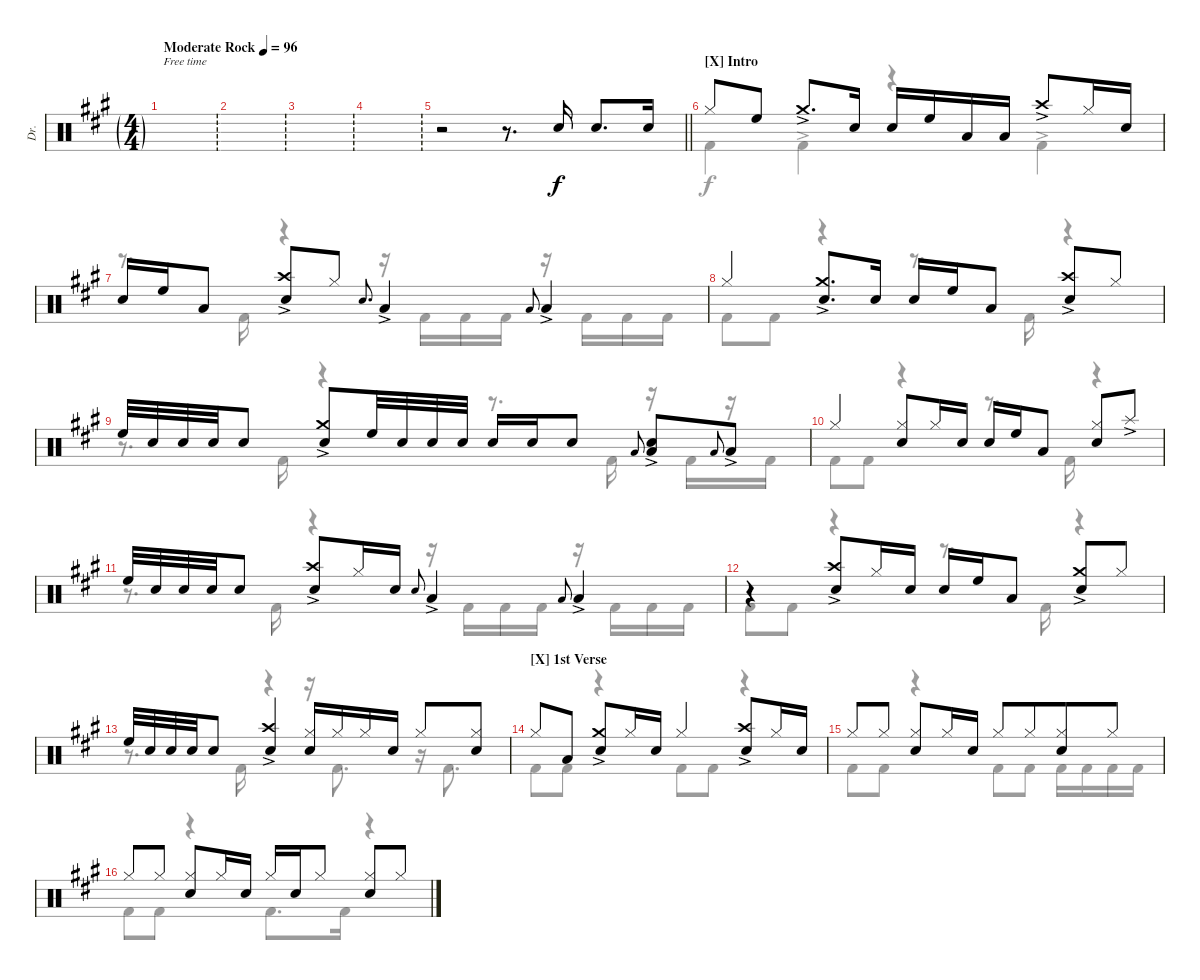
\defaultSystemsLayout 4
\bracketExtendMode groupsimilarinstruments
\otherSystemsTrackNameOrientation horizontal
\track ("Drums" "Dr.") {instrument percussion}
\staff {score}
\articulation defaults
\voice
\ts (4 4)
\ft
\ac
\tempo (96 "Moderate Rock")
\clef neutral
\ks a
|
\ft
|
\ft
|
\ft
|
\ft
\barLineRight lightlight
r.2 r.8{d} "Snare (hit) 2"{acc forcenatural}.16{beam invert} "Snare (hit) 2"{acc forcenatural}.8{d beam invert} "Snare (hit) 2"{acc forcenatural}.16 |
\section ("X" "Intro")
"Hi-Hat (closed)"{acc forcenatural}.8 "High Floor Tom (hit)"{acc forcenatural}.8 "Crash medium (hit)"{ac acc forcenatural}.8{d} "Snare (hit) 2"{acc forcenatural}.16 "Snare (hit) 2"{acc forcenatural}.16 "High Floor Tom (hit)"{acc forcenatural}.16 "Low Tom (hit)"{acc forcenatural}.16 "Low Tom (hit)"{acc forcenatural}.16 "Crash high (hit)"{ac acc forcenatural}.8 "Hi-Hat (closed)"{acc forcenatural}.16 "Snare (hit) 2"{acc forcenatural}.16 |
"Snare (hit) 2"{acc forcenatural}.16 "High Floor Tom (hit)"{acc forcenatural}.16 "Low Tom (hit)"{acc forcenatural}.8 ("Snare (hit) 2"{ac acc forcenatural} "Crash high (hit)"{ac acc forcenatural}).8 "Hi-Hat (closed)"{acc forcenatural}.8 "Snare (hit) 2"{acc forcenatural}.8{d gr onbeat} "Low Tom (hit)"{ac acc forcenatural}.4 "Low Tom (hit)"{acc forcenatural}.8{gr onbeat} "Low Tom (hit)"{ac acc forcenatural}.4 |
"Hi-Hat (closed)"{acc forcenatural}.4 ("Snare (hit) 2"{ac acc forcenatural} "Crash medium (hit)"{ac acc forcenatural}).8{d} "Snare (hit) 2"{acc forcenatural}.16 "Snare (hit) 2"{acc forcenatural}.16 "High Floor Tom (hit)"{acc forcenatural}.16 "Low Tom (hit)"{acc forcenatural}.8 ("Snare (hit) 2"{ac acc forcenatural} "Crash high (hit)"{ac acc forcenatural}).8 "Hi-Hat (closed)"{acc forcenatural}.8 |
"High Floor Tom (hit)"{acc forcenatural}.32 "Snare (hit) 2"{acc forcenatural}.32 "Snare (hit) 2"{acc forcenatural}.32 "Snare (hit) 2"{acc forcenatural}.32 "Snare (hit) 2"{acc forcenatural}.8 ("Snare (hit) 2"{ac acc forcenatural} "Crash medium (hit)"{ac acc forcenatural}).8 "High Floor Tom (hit)"{acc forcenatural}.32 "Snare (hit) 2"{acc forcenatural}.32 "Snare (hit) 2"{acc forcenatural}.32 "Snare (hit) 2"{acc forcenatural}.32 "Snare (hit) 2"{acc forcenatural}.16 "Snare (hit) 2"{acc forcenatural}.16 "Snare (hit) 2"{acc forcenatural}.8 "Low Tom (hit)"{acc forcenatural}.8{gr onbeat} ("Snare (hit) 2"{ac acc forcenatural} "Low Tom (hit)"{ac acc forcenatural}).8 "Low Tom (hit)"{acc forcenatural}.8{gr onbeat} "Low Tom (hit)"{ac acc forcenatural}.8 |
"Hi-Hat (closed)"{acc forcenatural}.4 ("Hi-Hat (closed)"{acc forcenatural} "Snare (hit) 2"{acc forcenatural}).8 "Hi-Hat (closed)"{acc forcenatural}.16 "Snare (hit) 2"{acc forcenatural}.16 "Snare (hit) 2"{acc forcenatural}.16 "High Floor Tom (hit)"{acc forcenatural}.16 "Low Tom (hit)"{acc forcenatural}.8 ("Snare (hit) 2"{acc forcenatural} "Hi-Hat (closed)"{acc forcenatural}).8 "Splash (hit)"{ac acc forcenatural}.8 |
"High Floor Tom (hit)"{acc forcenatural}.32 "Snare (hit) 2"{acc forcenatural}.32 "Snare (hit) 2"{acc forcenatural}.32 "Snare (hit) 2"{acc forcenatural}.32 "Snare (hit) 2"{acc forcenatural}.8 ("Snare (hit) 2"{ac acc forcenatural} "Crash high (hit)"{ac acc forcenatural}).8 "Hi-Hat (closed)"{acc forcenatural}.16 "Snare (hit) 2"{acc forcenatural}.16 "Snare (hit) 2"{acc forcenatural}.8{gr onbeat} "Low Tom (hit)"{ac acc forcenatural}.4 "Low Tom (hit)"{acc forcenatural}.8{gr onbeat} "Low Tom (hit)"{ac acc forcenatural}.4 |
r.4 ("Snare (hit) 2"{ac acc forcenatural} "Crash high (hit)"{ac acc forcenatural}).8 "Hi-Hat (closed)"{acc forcenatural}.16 "Snare (hit) 2"{acc forcenatural}.16 "Snare (hit) 2"{acc forcenatural}.16 "High Floor Tom (hit)"{acc forcenatural}.16 "Low Tom (hit)"{acc forcenatural}.8 ("Snare (hit) 2"{ac acc forcenatural} "Crash medium (hit)"{ac acc forcenatural}).8 "Hi-Hat (closed)"{acc forcenatural}.8 |
"High Floor Tom (hit)"{acc forcenatural}.32 "Snare (hit) 2"{acc forcenatural}.32 "Snare (hit) 2"{acc forcenatural}.32 "Snare (hit) 2"{acc forcenatural}.32 "Snare (hit) 2"{acc forcenatural}.8 ("Snare (hit) 2"{ac acc forcenatural} "Crash high (hit)"{ac acc forcenatural}).4 ("Snare (hit) 2"{acc forcenatural} "Hi-Hat (closed)"{acc forcenatural}).16 "Hi-Hat (closed)"{acc forcenatural}.16 "Hi-Hat (closed)"{acc forcenatural}.16 "Snare (hit) 2"{acc forcenatural}.16 "Hi-Hat (closed)"{acc forcenatural}.8 ("Hi-Hat (closed)"{acc forcenatural} "Snare (hit) 2"{acc forcenatural}).8 |
\section ("X" "1st Verse")
"Hi-Hat (closed)"{acc forcenatural}.8 "Low Tom (hit)"{acc forcenatural}.8 ("Snare (hit) 2"{ac acc forcenatural} "Crash medium (hit)"{ac acc forcenatural}).8 "Hi-Hat (closed)"{acc forcenatural}.16 "Snare (hit) 2"{acc forcenatural}.16 "Hi-Hat (closed)"{acc forcenatural}.4 ("Crash high (hit)"{ac acc forcenatural} "Snare (hit) 2"{ac acc forcenatural}).8 "Hi-Hat (closed)"{acc forcenatural}.16 "Snare (hit) 2"{acc forcenatural}.16 |
"Hi-Hat (closed)"{acc forcenatural}.8 "Hi-Hat (closed)"{acc forcenatural}.8 ("Hi-Hat (closed)"{acc forcenatural} "Snare (hit) 2"{acc forcenatural}).8 "Hi-Hat (closed)"{acc forcenatural}.16 "Snare (hit) 2"{acc forcenatural}.16 "Hi-Hat (closed)"{acc forcenatural}.8 "Hi-Hat (closed)"{acc forcenatural}.8{beam merge} ("Hi-Hat (closed)"{acc forcenatural} "Snare (hit) 2"{acc forcenatural}).8 "Hi-Hat (closed)"{acc forcenatural}.8 |
"Hi-Hat (closed)"{acc forcenatural}.8 "Hi-Hat (closed)"{acc forcenatural}.8 ("Hi-Hat (closed)"{acc forcenatural} "Snare (hit) 2"{acc forcenatural}).8 "Hi-Hat (closed)"{acc forcenatural}.16 "Snare (hit) 2"{acc forcenatural}.16 "Hi-Hat (closed)"{acc forcenatural}.16 "Snare (hit) 2"{acc forcenatural}.16 "Hi-Hat (closed)"{acc forcenatural}.8 ("Hi-Hat (closed)"{acc forcenatural} "Snare (hit) 2"{acc forcenatural}).8 "Hi-Hat (closed)"{acc forcenatural}.8
\voice
\clef neutral
\ottava regular
\simile none
\ks a
|
|
|
|
\barLineRight lightlight
|
"Kick (hit) 2"{acc forcenatural}.4 "Kick (hit) 2"{ac acc forcenatural}.4 r.4 "Kick (hit) 2"{ac acc forcenatural}.4 |
r.8{d} "Kick (hit) 2"{acc forcenatural}.16 r.4 r.16 "Kick (hit) 2"{acc forcenatural}.16 "Kick (hit) 2"{acc forcenatural}.16 "Kick (hit) 2"{acc forcenatural}.16 r.16 "Kick (hit) 2"{acc forcenatural}.16 "Kick (hit) 2"{acc forcenatural}.16 "Kick (hit) 2"{acc forcenatural}.16 |
"Kick (hit) 2"{acc forcenatural}.8 "Kick (hit) 2"{acc forcenatural}.8 r.4 r.8{d} "Kick (hit) 2"{acc forcenatural}.16 r.4 |
r.8{d} "Kick (hit) 2"{acc forcenatural}.16 r.4 r.8{d} "Kick (hit) 2"{acc forcenatural}.16 r.16 "Kick (hit) 2"{acc forcenatural}.16 r.16 "Kick (hit) 2"{acc forcenatural}.16 |
"Kick (hit) 2"{acc forcenatural}.8 "Kick (hit) 2"{acc forcenatural}.8 r.4 r.8{d} "Kick (hit) 2"{acc forcenatural}.16 r.4 |
r.8{d} "Kick (hit) 2"{acc forcenatural}.16 r.4 r.16 "Kick (hit) 2"{acc forcenatural}.16 "Kick (hit) 2"{acc forcenatural}.16 "Kick (hit) 2"{acc forcenatural}.16 r.16 "Kick (hit) 2"{acc forcenatural}.16 "Kick (hit) 2"{acc forcenatural}.16 "Kick (hit) 2"{acc forcenatural}.16 |
"Kick (hit) 2"{acc forcenatural}.8 "Kick (hit) 2"{acc forcenatural}.8 r.4 r.8{d} "Kick (hit) 2"{acc forcenatural}.16 r.4 |
r.8{d} "Kick (hit) 2"{acc forcenatural}.16 r.4 r.16 "Kick (hit) 2"{acc forcenatural}.8{d} r.16 "Kick (hit) 2"{acc forcenatural}.8{d} |
"Kick (hit) 2"{acc forcenatural}.8 "Kick (hit) 2"{acc forcenatural}.8 r.4 "Kick (hit) 2"{acc forcenatural}.8 "Kick (hit) 2"{acc forcenatural}.8 r.4 |
"Kick (hit) 2"{acc forcenatural}.8 "Kick (hit) 2"{acc forcenatural}.8 r.4 "Kick (hit) 2"{acc forcenatural}.8 "Kick (hit) 2"{acc forcenatural}.8 "Kick (hit) 2"{acc forcenatural}.16 "Kick (hit) 2"{acc forcenatural}.16 "Kick (hit) 2"{acc forcenatural}.16 "Kick (hit) 2"{acc forcenatural}.16 |
"Kick (hit) 2"{acc forcenatural}.8 "Kick (hit) 2"{acc forcenatural}.8 r.4 "Kick (hit) 2"{acc forcenatural}.8{d} "Kick (hit) 2"{acc forcenatural}.16 r.4
